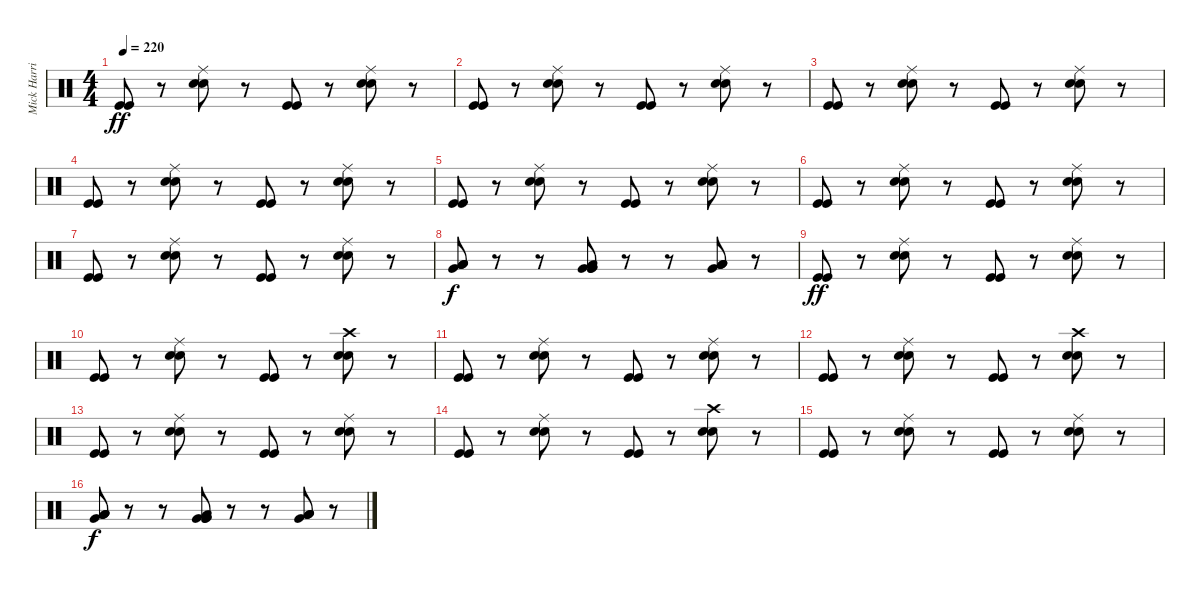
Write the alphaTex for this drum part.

\track ("Mick Harris" "Mick Harri") {instrument percussion}
\staff {score}
\articulation defaults
\ts (4 4)
\tempo 220
\clef neutral
\ks c
("Kick (hit)" "Kick (hit)").8{dy ff} r.8 ("Ride (middle)" "Snare (hit) 2" "Snare (hit) 2").8 r.8 ("Kick (hit)" "Kick (hit)").8 r.8 ("Ride (middle)" "Snare (hit) 2" "Snare (hit) 2").8 r.8 |
("Kick (hit)" "Kick (hit)").8 r.8 ("Ride (middle)" "Snare (hit) 2" "Snare (hit) 2").8 r.8 ("Kick (hit)" "Kick (hit)").8 r.8 ("Ride (middle)" "Snare (hit) 2" "Snare (hit) 2").8 r.8 |
("Kick (hit)" "Kick (hit)").8 r.8 ("Ride (middle)" "Snare (hit) 2" "Snare (hit) 2").8 r.8 ("Kick (hit)" "Kick (hit)").8 r.8 ("Ride (middle)" "Snare (hit) 2" "Snare (hit) 2").8 r.8 |
("Kick (hit)" "Kick (hit)").8 r.8 ("Ride (middle)" "Snare (hit) 2" "Snare (hit) 2").8 r.8 ("Kick (hit)" "Kick (hit)").8 r.8 ("Ride (middle)" "Snare (hit) 2" "Snare (hit) 2").8 r.8 |
("Kick (hit)" "Kick (hit)").8 r.8 ("Ride (middle)" "Snare (hit) 2" "Snare (hit) 2").8 r.8 ("Kick (hit)" "Kick (hit)").8 r.8 ("Ride (middle)" "Snare (hit) 2" "Snare (hit) 2").8 r.8 |
("Kick (hit)" "Kick (hit)").8 r.8 ("Ride (middle)" "Snare (hit) 2" "Snare (hit) 2").8 r.8 ("Kick (hit)" "Kick (hit)").8 r.8 ("Ride (middle)" "Snare (hit) 2" "Snare (hit) 2").8 r.8 |
("Kick (hit)" "Kick (hit)").8 r.8 ("Ride (middle)" "Snare (hit) 2" "Snare (hit) 2").8 r.8 ("Kick (hit)" "Kick (hit)").8 r.8 ("Ride (middle)" "Snare (hit) 2" "Snare (hit) 2").8 r.8 |
("Low Floor Tom (hit)" "Low Tom (hit)" "Low Tom (hit)" "Very Low Tom (hit)").8{dy f volume 16} r.8 r.8 ("Low Floor Tom (hit)" "Very Low Tom (hit)" "Very Low Tom (hit)" "Very Low Tom (hit)").8{volume 16} r.8 r.8 ("Low Floor Tom (hit)" "Low Tom (hit)" "Low Tom (hit)" "Very Low Tom (hit)").8{volume 16} r.8 |
("Kick (hit)" "Kick (hit)").8{dy ff} r.8 ("Ride (middle)" "Snare (hit) 2" "Snare (hit) 2").8 r.8 ("Kick (hit)" "Kick (hit)").8 r.8 ("Ride (middle)" "Snare (hit) 2" "Snare (hit) 2").8 r.8 |
("Kick (hit)" "Kick (hit)").8 r.8 ("Ride (middle)" "Snare (hit) 2" "Snare (hit) 2").8 r.8 ("Kick (hit)" "Kick (hit)").8 r.8 ("Crash high (hit)" "Snare (hit) 2" "Snare (hit) 2").8 r.8 |
("Kick (hit)" "Kick (hit)").8 r.8 ("Ride (middle)" "Snare (hit) 2" "Snare (hit) 2").8 r.8 ("Kick (hit)" "Kick (hit)").8 r.8 ("Ride (middle)" "Snare (hit) 2" "Snare (hit) 2").8 r.8 |
("Kick (hit)" "Kick (hit)").8 r.8 ("Ride (middle)" "Snare (hit) 2" "Snare (hit) 2").8 r.8 ("Kick (hit)" "Kick (hit)").8 r.8 ("Crash high (hit)" "Snare (hit) 2" "Snare (hit) 2").8 r.8 |
("Kick (hit)" "Kick (hit)").8 r.8 ("Ride (middle)" "Snare (hit) 2" "Snare (hit) 2").8 r.8 ("Kick (hit)" "Kick (hit)").8 r.8 ("Ride (middle)" "Snare (hit) 2" "Snare (hit) 2").8 r.8 |
("Kick (hit)" "Kick (hit)").8 r.8 ("Ride (middle)" "Snare (hit) 2" "Snare (hit) 2").8 r.8 ("Kick (hit)" "Kick (hit)").8 r.8 ("Crash high (hit)" "Snare (hit) 2" "Snare (hit) 2").8 r.8 |
("Kick (hit)" "Kick (hit)").8 r.8 ("Ride (middle)" "Snare (hit) 2" "Snare (hit) 2").8 r.8 ("Kick (hit)" "Kick (hit)").8 r.8 ("Ride (middle)" "Snare (hit) 2" "Snare (hit) 2").8 r.8 |
("Low Floor Tom (hit)" "Low Tom (hit)" "Low Tom (hit)" "Very Low Tom (hit)").8{dy f volume 16} r.8 r.8 ("Low Floor Tom (hit)" "Very Low Tom (hit)" "Very Low Tom (hit)" "Very Low Tom (hit)").8{volume 16} r.8 r.8 ("Low Floor Tom (hit)" "Low Tom (hit)" "Low Tom (hit)" "Very Low Tom (hit)").8{volume 16} r.8
